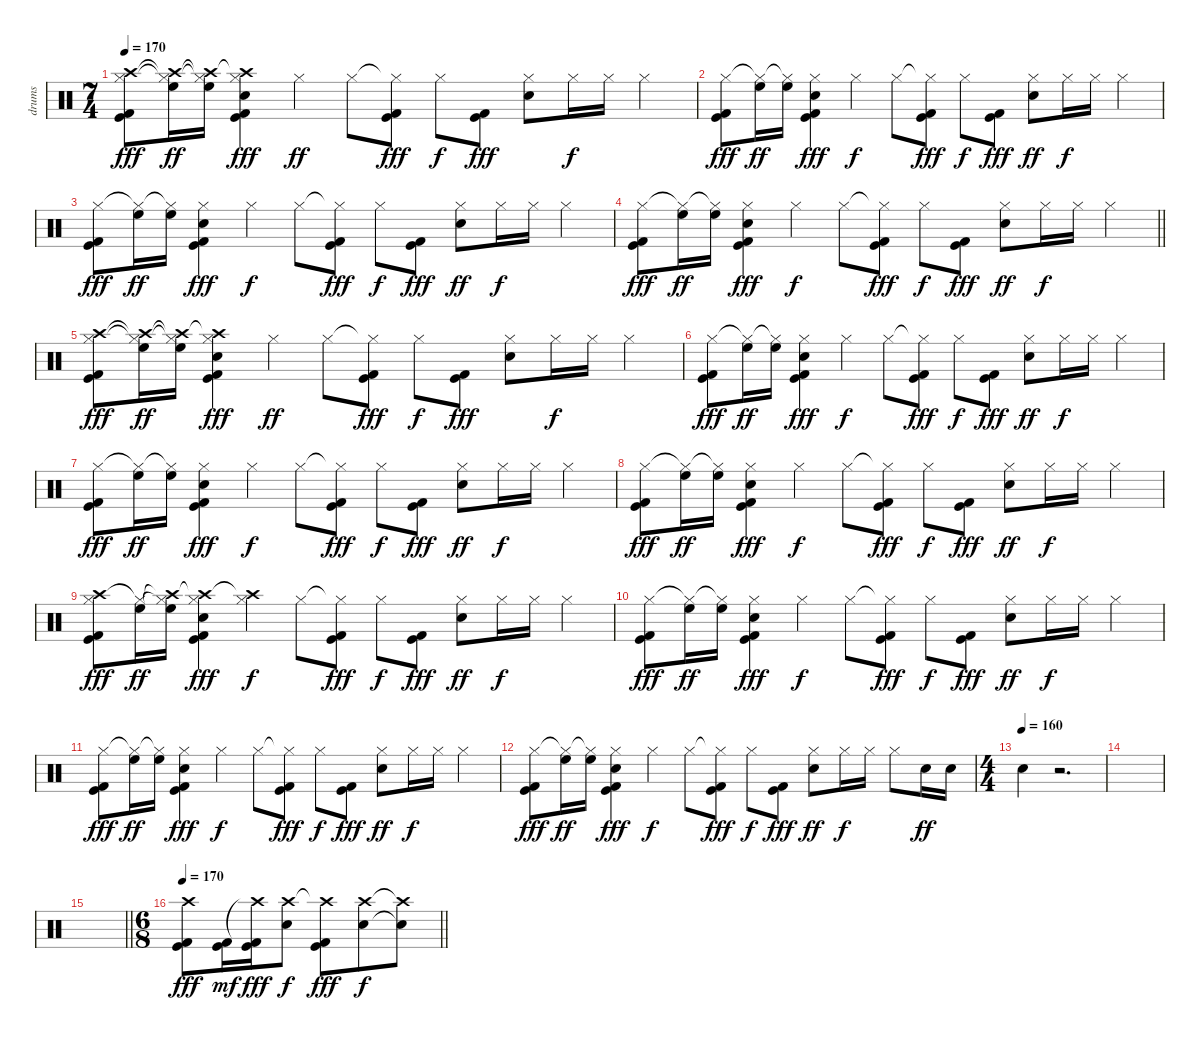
\track ("drums " "drums ") {instrument percussion}
\staff {score}
\articulation defaults
\ts (7 4)
\tempo 170
\clef neutral
\ks c
("Crash high (hit)" "Hi-Hat (closed)" "Kick (hit) 2" "Kick (hit)").8{dy fff} ("Crash high (hit)"{t} "Hi-Hat (closed)"{t} "High Floor Tom (hit)").16{dy ff} ("Crash high (hit)"{t} "Hi-Hat (closed)"{t} "High Floor Tom (hit)").16 ("Crash high (hit)"{t} "Hi-Hat (closed)" "Electric Snare (hit)" "Kick (hit) 2" "Kick (hit)").4{dy fff} "Hi-Hat (closed)".4{dy ff} "Hi-Hat (closed)".8 ("Hi-Hat (closed)"{t} "Kick (hit) 2" "Kick (hit)").8{dy fff} "Hi-Hat (closed)".8{dy f} ("Kick (hit) 2" "Kick (hit)").8{dy fff} ("Hi-Hat (closed)" "Electric Snare (hit)").8 "Hi-Hat (closed)".16{dy f} "Hi-Hat (closed)".16 "Hi-Hat (closed)".4 |
("Hi-Hat (closed)" "Kick (hit) 2" "Kick (hit)").8{dy fff} ("Hi-Hat (closed)"{t} "High Floor Tom (hit)").16{dy ff} ("Hi-Hat (closed)"{t} "High Floor Tom (hit)").16 ("Hi-Hat (closed)" "Electric Snare (hit)" "Kick (hit) 2" "Kick (hit)").4{dy fff} "Hi-Hat (closed)".4{dy f} "Hi-Hat (closed)".8 ("Hi-Hat (closed)"{t} "Kick (hit) 2" "Kick (hit)").8{dy fff} "Hi-Hat (closed)".8{dy f} ("Kick (hit) 2" "Kick (hit)").8{dy fff} ("Hi-Hat (closed)" "Electric Snare (hit)").8{dy ff} "Hi-Hat (closed)".16{dy f} "Hi-Hat (closed)".16 "Hi-Hat (closed)".4 |
("Hi-Hat (closed)" "Kick (hit) 2" "Kick (hit)").8{dy fff} ("Hi-Hat (closed)"{t} "High Floor Tom (hit)").16{dy ff} ("Hi-Hat (closed)"{t} "High Floor Tom (hit)").16 ("Hi-Hat (closed)" "Electric Snare (hit)" "Kick (hit) 2" "Kick (hit)").4{dy fff} "Hi-Hat (closed)".4{dy f} "Hi-Hat (closed)".8 ("Hi-Hat (closed)"{t} "Kick (hit) 2" "Kick (hit)").8{dy fff} "Hi-Hat (closed)".8{dy f} ("Kick (hit) 2" "Kick (hit)").8{dy fff} ("Hi-Hat (closed)" "Electric Snare (hit)").8{dy ff} "Hi-Hat (closed)".16{dy f} "Hi-Hat (closed)".16 "Hi-Hat (closed)".4 |
\barLineRight lightlight
("Hi-Hat (closed)" "Kick (hit) 2" "Kick (hit)").8{dy fff} ("Hi-Hat (closed)"{t} "High Floor Tom (hit)").16{dy ff} ("Hi-Hat (closed)"{t} "High Floor Tom (hit)").16 ("Hi-Hat (closed)" "Electric Snare (hit)" "Kick (hit) 2" "Kick (hit)").4{dy fff} "Hi-Hat (closed)".4{dy f} "Hi-Hat (closed)".8 ("Hi-Hat (closed)"{t} "Kick (hit) 2" "Kick (hit)").8{dy fff} "Hi-Hat (closed)".8{dy f} ("Kick (hit) 2" "Kick (hit)").8{dy fff} ("Hi-Hat (closed)" "Electric Snare (hit)").8{dy ff} "Hi-Hat (closed)".16{dy f} "Hi-Hat (closed)".16 "Hi-Hat (closed)".4 |
("Crash high (hit)" "Hi-Hat (closed)" "Kick (hit) 2" "Kick (hit)").8{dy fff} ("Crash high (hit)"{t} "Hi-Hat (closed)"{t} "High Floor Tom (hit)").16{dy ff} ("Crash high (hit)"{t} "Hi-Hat (closed)"{t} "High Floor Tom (hit)").16 ("Crash high (hit)"{t} "Hi-Hat (closed)" "Electric Snare (hit)" "Kick (hit) 2" "Kick (hit)").4{dy fff} "Hi-Hat (closed)".4{dy ff} "Hi-Hat (closed)".8 ("Hi-Hat (closed)"{t} "Kick (hit) 2" "Kick (hit)").8{dy fff} "Hi-Hat (closed)".8{dy f} ("Kick (hit) 2" "Kick (hit)").8{dy fff} ("Hi-Hat (closed)" "Electric Snare (hit)").8 "Hi-Hat (closed)".16{dy f} "Hi-Hat (closed)".16 "Hi-Hat (closed)".4 |
("Hi-Hat (closed)" "Kick (hit) 2" "Kick (hit)").8{dy fff} ("Hi-Hat (closed)"{t} "High Floor Tom (hit)").16{dy ff} ("Hi-Hat (closed)"{t} "High Floor Tom (hit)").16 ("Hi-Hat (closed)" "Electric Snare (hit)" "Kick (hit) 2" "Kick (hit)").4{dy fff} "Hi-Hat (closed)".4{dy f} "Hi-Hat (closed)".8 ("Hi-Hat (closed)"{t} "Kick (hit) 2" "Kick (hit)").8{dy fff} "Hi-Hat (closed)".8{dy f} ("Kick (hit) 2" "Kick (hit)").8{dy fff} ("Hi-Hat (closed)" "Electric Snare (hit)").8{dy ff} "Hi-Hat (closed)".16{dy f} "Hi-Hat (closed)".16 "Hi-Hat (closed)".4 |
("Hi-Hat (closed)" "Kick (hit) 2" "Kick (hit)").8{dy fff} ("Hi-Hat (closed)"{t} "High Floor Tom (hit)").16{dy ff} ("Hi-Hat (closed)"{t} "High Floor Tom (hit)").16 ("Hi-Hat (closed)" "Electric Snare (hit)" "Kick (hit) 2" "Kick (hit)").4{dy fff} "Hi-Hat (closed)".4{dy f} "Hi-Hat (closed)".8 ("Hi-Hat (closed)"{t} "Kick (hit) 2" "Kick (hit)").8{dy fff} "Hi-Hat (closed)".8{dy f} ("Kick (hit) 2" "Kick (hit)").8{dy fff} ("Hi-Hat (closed)" "Electric Snare (hit)").8{dy ff} "Hi-Hat (closed)".16{dy f} "Hi-Hat (closed)".16 "Hi-Hat (closed)".4 |
("Hi-Hat (closed)" "Kick (hit) 2" "Kick (hit)").8{dy fff} ("Hi-Hat (closed)"{t} "High Floor Tom (hit)").16{dy ff} ("Hi-Hat (closed)"{t} "High Floor Tom (hit)").16 ("Hi-Hat (closed)" "Electric Snare (hit)" "Kick (hit) 2" "Kick (hit)").4{dy fff} "Hi-Hat (closed)".4{dy f} "Hi-Hat (closed)".8 ("Hi-Hat (closed)"{t} "Kick (hit) 2" "Kick (hit)").8{dy fff} "Hi-Hat (closed)".8{dy f} ("Kick (hit) 2" "Kick (hit)").8{dy fff} ("Hi-Hat (closed)" "Electric Snare (hit)").8{dy ff} "Hi-Hat (closed)".16{dy f} "Hi-Hat (closed)".16 "Hi-Hat (closed)".4 |
("Crash high (hit)" "Hi-Hat (closed)" "Kick (hit) 2" "Kick (hit)").8{dy fff} ("Hi-Hat (closed)"{t} "High Floor Tom (hit)").16{dy ff} ("Crash high (hit)"{t} "Hi-Hat (closed)"{t} "High Floor Tom (hit)").16 ("Crash high (hit)"{t} "Hi-Hat (closed)" "Electric Snare (hit)" "Kick (hit) 2" "Kick (hit)").4{dy fff} ("Crash high (hit)"{t} "Hi-Hat (closed)").4{dy f} "Hi-Hat (closed)".8 ("Hi-Hat (closed)"{t} "Kick (hit) 2" "Kick (hit)").8{dy fff} "Hi-Hat (closed)".8{dy f} ("Kick (hit) 2" "Kick (hit)").8{dy fff} ("Hi-Hat (closed)" "Electric Snare (hit)").8{dy ff} "Hi-Hat (closed)".16{dy f} "Hi-Hat (closed)".16 "Hi-Hat (closed)".4 |
("Hi-Hat (closed)" "Kick (hit) 2" "Kick (hit)").8{dy fff} ("Hi-Hat (closed)"{t} "High Floor Tom (hit)").16{dy ff} ("Hi-Hat (closed)"{t} "High Floor Tom (hit)").16 ("Hi-Hat (closed)" "Electric Snare (hit)" "Kick (hit) 2" "Kick (hit)").4{dy fff} "Hi-Hat (closed)".4{dy f} "Hi-Hat (closed)".8 ("Hi-Hat (closed)"{t} "Kick (hit) 2" "Kick (hit)").8{dy fff} "Hi-Hat (closed)".8{dy f} ("Kick (hit) 2" "Kick (hit)").8{dy fff} ("Hi-Hat (closed)" "Electric Snare (hit)").8{dy ff} "Hi-Hat (closed)".16{dy f} "Hi-Hat (closed)".16 "Hi-Hat (closed)".4 |
("Hi-Hat (closed)" "Kick (hit) 2" "Kick (hit)").8{dy fff} ("Hi-Hat (closed)"{t} "High Floor Tom (hit)").16{dy ff} ("Hi-Hat (closed)"{t} "High Floor Tom (hit)").16 ("Hi-Hat (closed)" "Electric Snare (hit)" "Kick (hit) 2" "Kick (hit)").4{dy fff} "Hi-Hat (closed)".4{dy f} "Hi-Hat (closed)".8 ("Hi-Hat (closed)"{t} "Kick (hit) 2" "Kick (hit)").8{dy fff} "Hi-Hat (closed)".8{dy f} ("Kick (hit) 2" "Kick (hit)").8{dy fff} ("Hi-Hat (closed)" "Electric Snare (hit)").8{dy ff} "Hi-Hat (closed)".16{dy f} "Hi-Hat (closed)".16 "Hi-Hat (closed)".4 |
("Hi-Hat (closed)" "Kick (hit) 2" "Kick (hit)").8{dy fff} ("Hi-Hat (closed)"{t} "High Floor Tom (hit)").16{dy ff} ("Hi-Hat (closed)"{t} "High Floor Tom (hit)").16 ("Hi-Hat (closed)" "Electric Snare (hit)" "Kick (hit) 2" "Kick (hit)").4{dy fff} "Hi-Hat (closed)".4{dy f} "Hi-Hat (closed)".8 ("Hi-Hat (closed)"{t} "Kick (hit) 2" "Kick (hit)").8{dy fff} "Hi-Hat (closed)".8{dy f} ("Kick (hit) 2" "Kick (hit)").8{dy fff} ("Hi-Hat (closed)" "Electric Snare (hit)").8{dy ff} "Hi-Hat (closed)".16{dy f} "Hi-Hat (closed)".16 "Hi-Hat (closed)".8 "Electric Snare (hit)".16{dy ff} "Electric Snare (hit)".16 |
\ts (4 4)
\tempo (160)
"Electric Snare (hit)".4 r.2{d} |
|
\barLineRight lightlight
|
\ts (6 8)
\tempo 170
\barLineRight lightlight
("Crash high (hit)" "Kick (hit) 2" "Kick (hit)").8{dy fff} ("Kick (hit) 2" "Kick (hit)").16{dy mf} ("Crash high (hit)"{t} "Kick (hit) 2" "Kick (hit)").16{dy fff} ("Crash high (hit)" "Electric Snare (hit)").8{dy f} ("Crash high (hit)"{t} "Kick (hit) 2" "Kick (hit)").8{dy fff} ("Crash high (hit)" "Electric Snare (hit)").8{dy f} ("Crash high (hit)"{t} "Electric Snare (hit)"{t}).8
